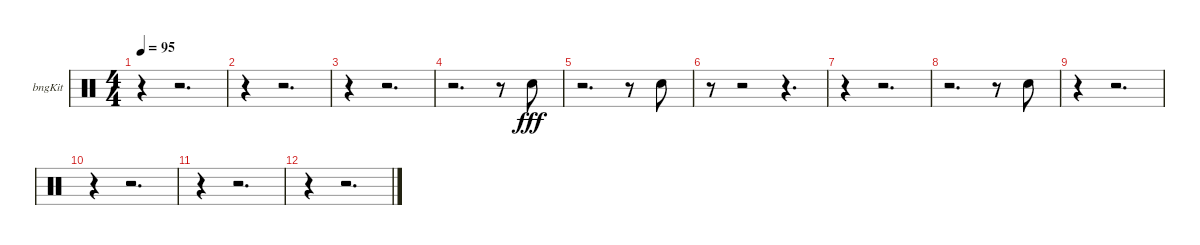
\bracketExtendMode groupsimilarinstruments
\firstSystemTrackNameOrientation horizontal
\otherSystemsTrackNameOrientation horizontal
\track ("Bongos" "bngKit") {instrument percussion}
\staff {score}
\articulation defaults
\ts (4 4)
\tempo 95
\clef neutral
\ks c
r.4{dy fff} r.2{d} |
r.4 r.2{d} |
r.4 r.2{d} |
r.2{d} r.8 "Snare (hit) 2".8 |
r.2{d} r.8 "Snare (hit) 2".8 |
r.8 r.2 r.4{d} |
r.4 r.2{d} |
r.2{d} r.8 "Snare (hit) 2".8 |
r.4 r.2{d} |
r.4 r.2{d} |
r.4 r.2{d} |
r.4 r.2{d}
